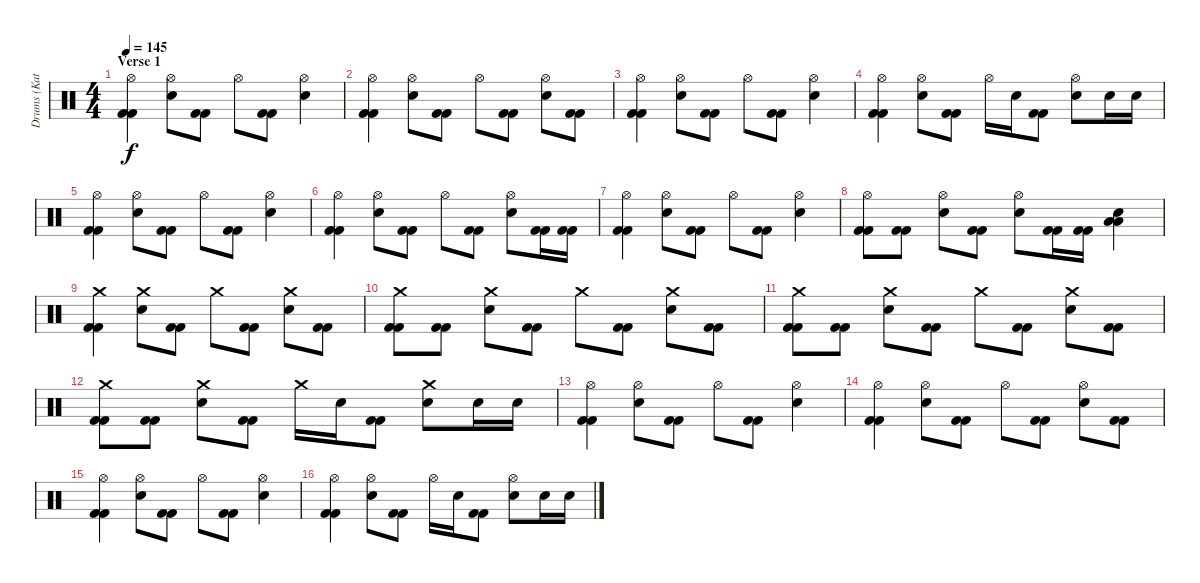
\track ("Drums (Katsuma)" "Drums (Kat") {instrument percussion}
\staff {score}
\articulation defaults
\ts (4 4)
\section ("" "Verse 1")
\tempo 145
\clef neutral
\ks c
("Hi-Hat (open)" "Kick (hit) 2" "Kick (hit) 2").4{dy f} ("Hi-Hat (open)" "Electric Snare (hit)").8 ("Kick (hit) 2" "Kick (hit) 2").8 "Hi-Hat (open)".8 ("Kick (hit) 2" "Kick (hit) 2").8 ("Hi-Hat (open)" "Electric Snare (hit)").4 |
("Hi-Hat (open)" "Kick (hit) 2" "Kick (hit) 2").4 ("Hi-Hat (open)" "Electric Snare (hit)").8 ("Kick (hit) 2" "Kick (hit) 2").8 "Hi-Hat (open)".8 ("Kick (hit) 2" "Kick (hit) 2").8 ("Hi-Hat (open)" "Electric Snare (hit)").8 ("Kick (hit) 2" "Kick (hit) 2").8 |
("Hi-Hat (open)" "Kick (hit) 2" "Kick (hit) 2").4 ("Hi-Hat (open)" "Electric Snare (hit)").8 ("Kick (hit) 2" "Kick (hit) 2").8 "Hi-Hat (open)".8 ("Kick (hit) 2" "Kick (hit) 2").8 ("Hi-Hat (open)" "Electric Snare (hit)").4 |
("Hi-Hat (open)" "Kick (hit) 2" "Kick (hit) 2").4 ("Hi-Hat (open)" "Electric Snare (hit)").8 ("Kick (hit) 2" "Kick (hit) 2").8 "Hi-Hat (open)".16 "Electric Snare (hit)".16 ("Kick (hit) 2" "Kick (hit) 2").8 ("Hi-Hat (open)" "Electric Snare (hit)").8 "Electric Snare (hit)".16 "Electric Snare (hit)".16 |
("Hi-Hat (open)" "Kick (hit) 2" "Kick (hit) 2").4 ("Hi-Hat (open)" "Electric Snare (hit)").8 ("Kick (hit) 2" "Kick (hit) 2").8 "Hi-Hat (open)".8 ("Kick (hit) 2" "Kick (hit) 2").8 ("Hi-Hat (open)" "Electric Snare (hit)").4 |
("Hi-Hat (open)" "Kick (hit) 2" "Kick (hit) 2").4 ("Hi-Hat (open)" "Electric Snare (hit)").8 ("Kick (hit) 2" "Kick (hit) 2").8 "Hi-Hat (open)".8 ("Kick (hit) 2" "Kick (hit) 2").8 ("Hi-Hat (open)" "Electric Snare (hit)").8 ("Kick (hit) 2" "Kick (hit) 2").16 ("Kick (hit) 2" "Kick (hit) 2").16 |
("Hi-Hat (open)" "Kick (hit) 2" "Kick (hit) 2").4 ("Hi-Hat (open)" "Electric Snare (hit)").8 ("Kick (hit) 2" "Kick (hit) 2").8 "Hi-Hat (open)".8 ("Kick (hit) 2" "Kick (hit) 2").8 ("Hi-Hat (open)" "Electric Snare (hit)").4 |
("Hi-Hat (open)" "Kick (hit) 2" "Kick (hit) 2").8 ("Kick (hit) 2" "Kick (hit) 2").8 ("Hi-Hat (open)" "Electric Snare (hit)").8 ("Kick (hit) 2" "Kick (hit) 2").8 ("Hi-Hat (open)" "Electric Snare (hit)").8 ("Kick (hit) 2" "Kick (hit) 2").16 ("Kick (hit) 2" "Kick (hit) 2").16 ("Low Tom (hit)" "Low Tom (hit)" "Electric Snare (hit)").4 |
("Crash medium (hit)" "Kick (hit) 2" "Kick (hit) 2").4 ("Crash medium (hit)" "Electric Snare (hit)").8 ("Kick (hit) 2" "Kick (hit) 2").8 "Crash medium (hit)".8 ("Kick (hit) 2" "Kick (hit) 2").8 ("Crash medium (hit)" "Electric Snare (hit)").8 ("Kick (hit) 2" "Kick (hit) 2").8 |
("Crash medium (hit)" "Kick (hit) 2" "Kick (hit) 2").8 ("Kick (hit) 2" "Kick (hit) 2").8 ("Crash medium (hit)" "Electric Snare (hit)").8 ("Kick (hit) 2" "Kick (hit) 2").8 "Crash medium (hit)".8 ("Kick (hit) 2" "Kick (hit) 2").8 ("Crash medium (hit)" "Electric Snare (hit)").8 ("Kick (hit) 2" "Kick (hit) 2").8 |
("Crash medium (hit)" "Kick (hit) 2" "Kick (hit) 2").8 ("Kick (hit) 2" "Kick (hit) 2").8 ("Crash medium (hit)" "Electric Snare (hit)").8 ("Kick (hit) 2" "Kick (hit) 2").8 "Crash medium (hit)".8 ("Kick (hit) 2" "Kick (hit) 2").8 ("Crash medium (hit)" "Electric Snare (hit)").8 ("Kick (hit) 2" "Kick (hit) 2").8 |
("Crash medium (hit)" "Kick (hit) 2" "Kick (hit) 2").8 ("Kick (hit) 2" "Kick (hit) 2").8 ("Crash medium (hit)" "Electric Snare (hit)").8 ("Kick (hit) 2" "Kick (hit) 2").8 "Crash medium (hit)".16 "Electric Snare (hit)".16 ("Kick (hit) 2" "Kick (hit) 2").8 ("Crash medium (hit)" "Electric Snare (hit)").8 "Electric Snare (hit)".16 "Electric Snare (hit)".16 |
("Hi-Hat (open)" "Kick (hit) 2" "Kick (hit) 2").4 ("Hi-Hat (open)" "Electric Snare (hit)").8 ("Kick (hit) 2" "Kick (hit) 2").8 "Hi-Hat (open)".8 ("Kick (hit) 2" "Kick (hit) 2").8 ("Hi-Hat (open)" "Electric Snare (hit)").4 |
("Hi-Hat (open)" "Kick (hit) 2" "Kick (hit) 2").4 ("Hi-Hat (open)" "Electric Snare (hit)").8 ("Kick (hit) 2" "Kick (hit) 2").8 "Hi-Hat (open)".8 ("Kick (hit) 2" "Kick (hit) 2").8 ("Hi-Hat (open)" "Electric Snare (hit)").8 ("Kick (hit) 2" "Kick (hit) 2").8 |
("Hi-Hat (open)" "Kick (hit) 2" "Kick (hit) 2").4 ("Hi-Hat (open)" "Electric Snare (hit)").8 ("Kick (hit) 2" "Kick (hit) 2").8 "Hi-Hat (open)".8 ("Kick (hit) 2" "Kick (hit) 2").8 ("Hi-Hat (open)" "Electric Snare (hit)").4 |
("Hi-Hat (open)" "Kick (hit) 2" "Kick (hit) 2").4 ("Hi-Hat (open)" "Electric Snare (hit)").8 ("Kick (hit) 2" "Kick (hit) 2").8 "Hi-Hat (open)".16 "Electric Snare (hit)".16 ("Kick (hit) 2" "Kick (hit) 2").8 ("Hi-Hat (open)" "Electric Snare (hit)").8 "Electric Snare (hit)".16 "Electric Snare (hit)".16
